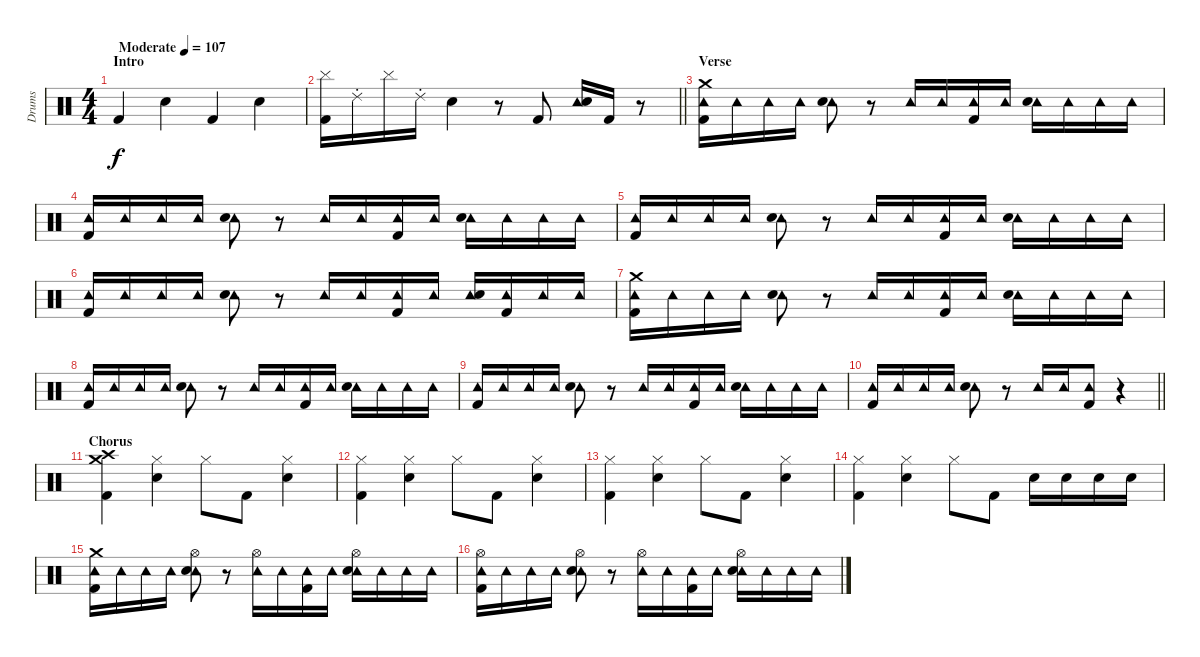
\track ("Drums" "Drums") {instrument percussion}
\staff {score}
\articulation defaults
\ts (4 4)
\section ("" "Intro")
\tempo (107 "Moderate")
\clef neutral
\ks c "Kick (hit) 2".4{dy f} "Hand Clap (hit)".4 "Kick (hit) 2".4 "Hand Clap (hit)".4
|
\barLineRight lightlight
("Cymbal (hit)" "Kick (hit) 2").16 "Ride (choke) 2".16 "Cymbal (hit)".16 "Ride (choke) 2".16 "Electric Snare (hit)".4 r.8 "Kick (hit) 2".8 ("Tambourine (hit)" "Electric Snare (hit)").16 "Kick (hit) 2".16 r.8 |
\section ("" "Verse")
("Crash medium (hit)" "Tambourine (hit)" "Kick (hit) 2").16 "Tambourine (hit)".16 "Tambourine (hit)".16 "Tambourine (hit)".16 ("Tambourine (hit)" "Electric Snare (hit)").8 r.8 "Tambourine (hit)".16 "Tambourine (hit)".16 ("Tambourine (hit)" "Kick (hit) 2").16 "Tambourine (hit)".16 ("Tambourine (hit)" "Electric Snare (hit)").16 "Tambourine (hit)".16 "Tambourine (hit)".16 "Tambourine (hit)".16 |
("Tambourine (hit)" "Kick (hit) 2").16 "Tambourine (hit)".16 "Tambourine (hit)".16 "Tambourine (hit)".16 ("Tambourine (hit)" "Electric Snare (hit)").8 r.8 "Tambourine (hit)".16 "Tambourine (hit)".16 ("Tambourine (hit)" "Kick (hit) 2").16 "Tambourine (hit)".16 ("Tambourine (hit)" "Electric Snare (hit)").16 "Tambourine (hit)".16 "Tambourine (hit)".16 "Tambourine (hit)".16 |
("Tambourine (hit)" "Kick (hit) 2").16 "Tambourine (hit)".16 "Tambourine (hit)".16 "Tambourine (hit)".16 ("Tambourine (hit)" "Electric Snare (hit)").8 r.8 "Tambourine (hit)".16 "Tambourine (hit)".16 ("Tambourine (hit)" "Kick (hit) 2").16 "Tambourine (hit)".16 ("Tambourine (hit)" "Electric Snare (hit)").16 "Tambourine (hit)".16 "Tambourine (hit)".16 "Tambourine (hit)".16 |
("Tambourine (hit)" "Kick (hit) 2").16 "Tambourine (hit)".16 "Tambourine (hit)".16 "Tambourine (hit)".16 ("Tambourine (hit)" "Electric Snare (hit)").8 r.8 "Tambourine (hit)".16 "Tambourine (hit)".16 ("Tambourine (hit)" "Kick (hit) 2").16 "Tambourine (hit)".16 ("Tambourine (hit)" "Electric Snare (hit)").16 ("Tambourine (hit)" "Kick (hit) 2").16 "Tambourine (hit)".16 "Tambourine (hit)".16 |
("Crash medium (hit)" "Tambourine (hit)" "Kick (hit) 2").16 "Tambourine (hit)".16 "Tambourine (hit)".16 "Tambourine (hit)".16 ("Tambourine (hit)" "Electric Snare (hit)").8 r.8 "Tambourine (hit)".16 "Tambourine (hit)".16 ("Tambourine (hit)" "Kick (hit) 2").16 "Tambourine (hit)".16 ("Tambourine (hit)" "Electric Snare (hit)").16 "Tambourine (hit)".16 "Tambourine (hit)".16 "Tambourine (hit)".16 |
("Tambourine (hit)" "Kick (hit) 2").16 "Tambourine (hit)".16 "Tambourine (hit)".16 "Tambourine (hit)".16 ("Tambourine (hit)" "Electric Snare (hit)").8 r.8 "Tambourine (hit)".16 "Tambourine (hit)".16 ("Tambourine (hit)" "Kick (hit) 2").16 "Tambourine (hit)".16 ("Tambourine (hit)" "Electric Snare (hit)").16 "Tambourine (hit)".16 "Tambourine (hit)".16 "Tambourine (hit)".16 |
("Tambourine (hit)" "Kick (hit) 2").16 "Tambourine (hit)".16 "Tambourine (hit)".16 "Tambourine (hit)".16 ("Tambourine (hit)" "Electric Snare (hit)").8 r.8 "Tambourine (hit)".16 "Tambourine (hit)".16 ("Tambourine (hit)" "Kick (hit) 2").16 "Tambourine (hit)".16 ("Tambourine (hit)" "Electric Snare (hit)").16 "Tambourine (hit)".16 "Tambourine (hit)".16 "Tambourine (hit)".16 |
\barLineRight lightlight
("Tambourine (hit)" "Kick (hit) 2").16 "Tambourine (hit)".16 "Tambourine (hit)".16 "Tambourine (hit)".16 ("Tambourine (hit)" "Electric Snare (hit)").8 r.8 "Tambourine (hit)".16 "Tambourine (hit)".16 ("Tambourine (hit)" "Kick (hit) 2").8 r.4 |
\section ("" "Chorus")
("Crash high (hit)" "Crash medium (hit)" "Kick (hit) 2").4 ("Hi-Hat (closed)" "Electric Snare (hit)").4 "Hi-Hat (closed)".8 "Kick (hit) 2".8 ("Hi-Hat (closed)" "Electric Snare (hit)").4 |
("Hi-Hat (closed)" "Kick (hit) 2").4 ("Hi-Hat (closed)" "Electric Snare (hit)").4 "Hi-Hat (closed)".8 "Kick (hit) 2".8 ("Hi-Hat (closed)" "Electric Snare (hit)").4 |
("Hi-Hat (closed)" "Kick (hit) 2").4 ("Hi-Hat (closed)" "Electric Snare (hit)").4 "Hi-Hat (closed)".8 "Kick (hit) 2".8 ("Hi-Hat (closed)" "Electric Snare (hit)").4 |
("Hi-Hat (closed)" "Kick (hit) 2").4 ("Hi-Hat (closed)" "Electric Snare (hit)").4 "Hi-Hat (closed)".8 "Kick (hit) 2".8 "Electric Snare (hit)".16 "Electric Snare (hit)".16 "Electric Snare (hit)".16 "Electric Snare (hit)".16 |
("Crash medium (hit)" "Tambourine (hit)" "Kick (hit) 2").16 "Tambourine (hit)".16 "Tambourine (hit)".16 "Tambourine (hit)".16 ("Hi-Hat (open)" "Tambourine (hit)" "Electric Snare (hit)").8 r.8 ("Hi-Hat (open)" "Tambourine (hit)").16 "Tambourine (hit)".16 ("Tambourine (hit)" "Kick (hit) 2").16 "Tambourine (hit)".16 ("Hi-Hat (open)" "Tambourine (hit)" "Electric Snare (hit)").16 "Tambourine (hit)".16 "Tambourine (hit)".16 "Tambourine (hit)".16 |
("Hi-Hat (open)" "Tambourine (hit)" "Kick (hit) 2").16 "Tambourine (hit)".16 "Tambourine (hit)".16 "Tambourine (hit)".16 ("Hi-Hat (open)" "Tambourine (hit)" "Electric Snare (hit)").8 r.8 ("Hi-Hat (open)" "Tambourine (hit)").16 "Tambourine (hit)".16 ("Tambourine (hit)" "Kick (hit) 2").16 "Tambourine (hit)".16 ("Hi-Hat (open)" "Tambourine (hit)" "Electric Snare (hit)").16 "Tambourine (hit)".16 "Tambourine (hit)".16 "Tambourine (hit)".16
